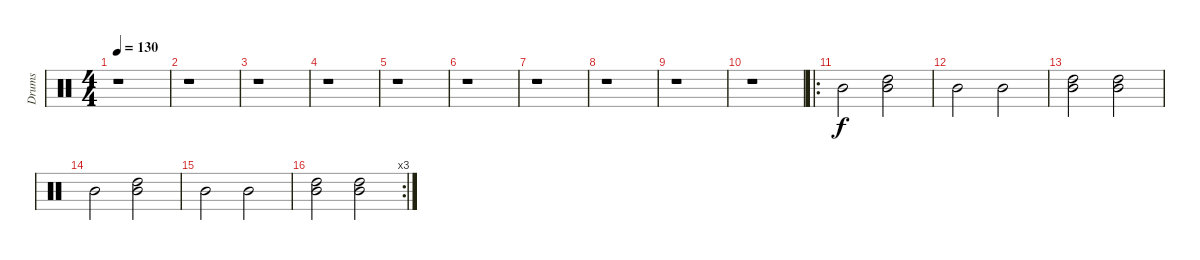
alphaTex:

\track ("Drums" "Drums") {instrument percussion}
\staff {score}
\articulation defaults
\ts (4 4)
\tempo 130
\clef neutral
\ks c
r.1{dy f} |
r.1 |
r.1 |
r.1 |
r.1 |
r.1 |
r.1 |
r.1 |
r.1 |
r.1 |
\ro "Mid Tom (hit)".2
("Mid Tom (hit)" "High Tom (hit)").2 |
"Mid Tom (hit)".2 "Mid Tom (hit)".2 |
("Mid Tom (hit)" "High Tom (hit)").2 ("Mid Tom (hit)" "High Tom (hit)").2 |
"Mid Tom (hit)".2 ("Mid Tom (hit)" "High Tom (hit)").2 |
"Mid Tom (hit)".2 "Mid Tom (hit)".2 |
\rc 3
("Mid Tom (hit)" "High Tom (hit)").2 ("Mid Tom (hit)" "High Tom (hit)").2
